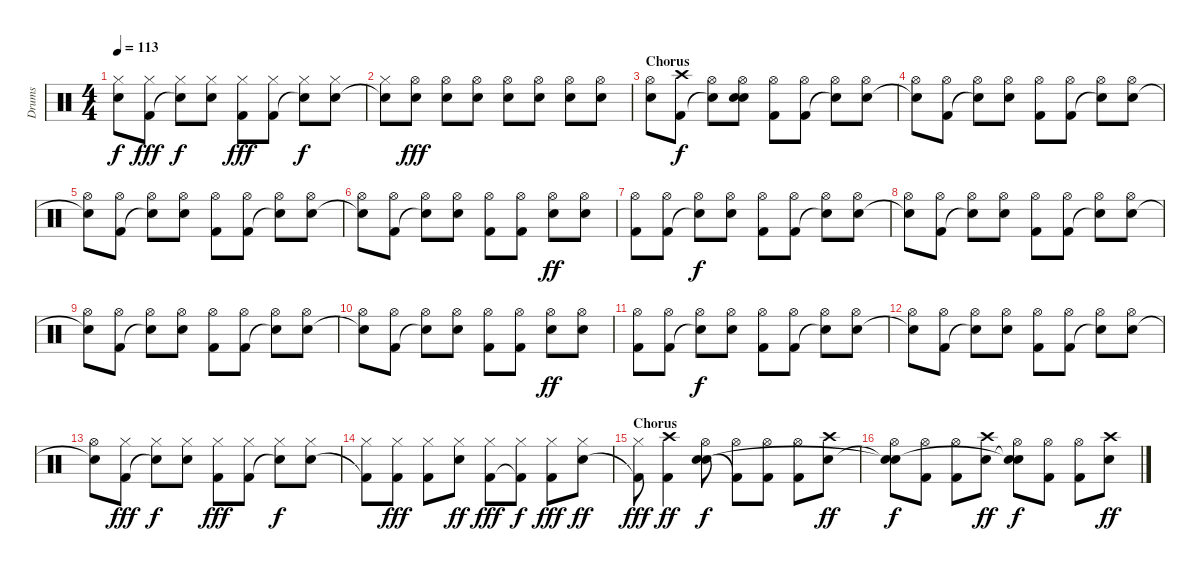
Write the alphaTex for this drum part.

\track ("Drums" "Drums") {instrument percussion}
\staff {score}
\articulation defaults
\ts (4 4)
\tempo 113
\clef neutral
\ks c
("Snare (hit)"{t} "Hi-Hat (closed)").8{dy f} ("Kick (hit) 2" "Hi-Hat (closed)").8{dy fff} ("Snare (hit)"{t} "Hi-Hat (closed)").8{dy f} ("Snare (hit) 2" "Hi-Hat (closed)").8 ("Kick (hit) 2" "Hi-Hat (closed)").8{dy fff} ("Kick (hit) 2" "Hi-Hat (closed)").8 ("Snare (hit)"{t} "Hi-Hat (closed)").8{dy f} ("Snare (hit) 2" "Hi-Hat (closed)").8 |
("Snare (hit) 2"{t} "Hi-Hat (closed)").8 ("Snare (hit) 2" "Hi-Hat (open)").8{dy fff} ("Snare (hit) 2" "Hi-Hat (open)").8 ("Snare (hit) 2" "Hi-Hat (open)").8 ("Snare (hit) 2" "Hi-Hat (open)").8 ("Snare (hit) 2" "Hi-Hat (open)").8 ("Snare (hit) 2" "Hi-Hat (open)").8 ("Snare (hit) 2" "Hi-Hat (open)").8 |
\section ("" "Chorus")
("Snare (hit) 2" "Hi-Hat (open)").8 ("Kick (hit) 2" "Crash high (hit)").8{dy f} ("Snare (hit)"{t} "Hi-Hat (open)").8 ("Snare (hit) 2" "Hi-Hat (open)" "Snare (hit)").8 ("Kick (hit) 2" "Hi-Hat (open)").8 ("Kick (hit) 2" "Hi-Hat (open)").8 ("Snare (hit)"{t} "Hi-Hat (open)").8 ("Snare (hit) 2" "Hi-Hat (open)").8 |
("Snare (hit)"{t} "Hi-Hat (open)").8 ("Kick (hit) 2" "Hi-Hat (open)").8 ("Snare (hit)"{t} "Hi-Hat (open)").8 ("Snare (hit) 2" "Hi-Hat (open)").8 ("Kick (hit) 2" "Hi-Hat (open)").8 ("Kick (hit) 2" "Hi-Hat (open)").8 ("Snare (hit)"{t} "Hi-Hat (open)").8 ("Snare (hit) 2" "Hi-Hat (open)").8 |
("Snare (hit)"{t} "Hi-Hat (open)").8 ("Kick (hit) 2" "Hi-Hat (open)").8 ("Snare (hit)"{t} "Hi-Hat (open)").8 ("Snare (hit) 2" "Hi-Hat (open)").8 ("Kick (hit) 2" "Hi-Hat (open)").8 ("Kick (hit) 2" "Hi-Hat (open)").8 ("Snare (hit)"{t} "Hi-Hat (open)").8 ("Snare (hit) 2" "Hi-Hat (open)").8 |
("Snare (hit)"{t} "Hi-Hat (open)").8 ("Kick (hit) 2" "Hi-Hat (open)").8 ("Snare (hit)"{t} "Hi-Hat (open)").8 ("Snare (hit) 2" "Hi-Hat (open)").8 ("Kick (hit) 2" "Hi-Hat (open)").8 ("Kick (hit) 2" "Hi-Hat (open)").8 ("Snare (hit) 2" "Hi-Hat (open)").8{dy ff} ("Snare (hit) 2" "Hi-Hat (open)").8 |
("Kick (hit) 2" "Hi-Hat (open)").8 ("Kick (hit) 2" "Hi-Hat (open)").8 ("Snare (hit)"{t} "Hi-Hat (open)").8{dy f} ("Snare (hit) 2" "Hi-Hat (open)").8 ("Kick (hit) 2" "Hi-Hat (open)").8 ("Kick (hit) 2" "Hi-Hat (open)").8 ("Snare (hit)"{t} "Hi-Hat (open)").8 ("Snare (hit) 2" "Hi-Hat (open)").8 |
("Snare (hit)"{t} "Hi-Hat (open)").8 ("Kick (hit) 2" "Hi-Hat (open)").8 ("Snare (hit)"{t} "Hi-Hat (open)").8 ("Snare (hit) 2" "Hi-Hat (open)").8 ("Kick (hit) 2" "Hi-Hat (open)").8 ("Kick (hit) 2" "Hi-Hat (open)").8 ("Snare (hit)"{t} "Hi-Hat (open)").8 ("Snare (hit) 2" "Hi-Hat (open)").8 |
("Snare (hit)"{t} "Hi-Hat (open)").8 ("Kick (hit) 2" "Hi-Hat (open)").8 ("Snare (hit)"{t} "Hi-Hat (open)").8 ("Snare (hit) 2" "Hi-Hat (open)").8 ("Kick (hit) 2" "Hi-Hat (open)").8 ("Kick (hit) 2" "Hi-Hat (open)").8 ("Snare (hit)"{t} "Hi-Hat (open)").8 ("Snare (hit) 2" "Hi-Hat (open)").8 |
("Snare (hit)"{t} "Hi-Hat (open)").8 ("Kick (hit) 2" "Hi-Hat (open)").8 ("Snare (hit)"{t} "Hi-Hat (open)").8 ("Snare (hit) 2" "Hi-Hat (open)").8 ("Kick (hit) 2" "Hi-Hat (open)").8 ("Kick (hit) 2" "Hi-Hat (open)").8 ("Snare (hit) 2" "Hi-Hat (open)").8{dy ff} ("Snare (hit) 2" "Hi-Hat (open)").8 |
("Kick (hit) 2" "Hi-Hat (open)").8 ("Kick (hit) 2" "Hi-Hat (open)").8 ("Snare (hit)"{t} "Hi-Hat (open)").8{dy f} ("Snare (hit) 2" "Hi-Hat (open)").8 ("Kick (hit) 2" "Hi-Hat (open)").8 ("Kick (hit) 2" "Hi-Hat (open)").8 ("Snare (hit)"{t} "Hi-Hat (open)").8 ("Snare (hit) 2" "Hi-Hat (open)").8 |
("Snare (hit)"{t} "Hi-Hat (open)").8 ("Kick (hit) 2" "Hi-Hat (open)").8 ("Snare (hit)"{t} "Hi-Hat (open)").8 ("Snare (hit) 2" "Hi-Hat (open)").8 ("Kick (hit) 2" "Hi-Hat (open)").8 ("Kick (hit) 2" "Hi-Hat (open)").8 ("Snare (hit)"{t} "Hi-Hat (open)").8 ("Snare (hit) 2" "Hi-Hat (open)").8 |
("Snare (hit)"{t} "Hi-Hat (open)").8 ("Kick (hit) 2" "Hi-Hat (closed)").8{dy fff} ("Snare (hit)"{t} "Hi-Hat (closed)").8{dy f} ("Snare (hit) 2" "Hi-Hat (closed)").8 ("Kick (hit) 2" "Hi-Hat (closed)").8{dy fff} ("Kick (hit) 2" "Hi-Hat (closed)").8 ("Snare (hit)"{t} "Hi-Hat (closed)").8{dy f} ("Snare (hit) 2" "Hi-Hat (closed)").8 |
("Kick (hit) 2"{t} "Hi-Hat (closed)").8 ("Kick (hit) 2" "Hi-Hat (closed)").8{dy fff} ("Kick (hit) 2" "Hi-Hat (closed)").8 ("Snare (hit) 2" "Hi-Hat (closed)").8{dy ff} ("Kick (hit) 2" "Hi-Hat (closed)").8{dy fff} ("Kick (hit) 2"{t} "Hi-Hat (closed)").8{dy f} ("Kick (hit) 2" "Hi-Hat (closed)").8{dy fff} ("Snare (hit) 2" "Hi-Hat (closed)").8{dy ff} |
\section ("" "Chorus")
("Kick (hit) 2"{t} "Hi-Hat (closed)").8{dy fff} ("Kick (hit) 2" "Crash high (hit)").4{dy ff} ("Snare (hit) 2" "Hi-Hat (open)" "Snare (hit)").8{dy f} ("Kick (hit) 2"{t} "Hi-Hat (open)").8 ("Kick (hit) 2" "Hi-Hat (open)").8 ("Kick (hit) 2" "Hi-Hat (open)").8 ("Snare (hit) 2" "Crash high (hit)").8{dy ff} |
("Snare (hit)"{t} "Hi-Hat (open)" "Snare (hit)"{t}).8{dy f} ("Kick (hit) 2" "Hi-Hat (open)").8 ("Kick (hit) 2" "Hi-Hat (open)").8 ("Snare (hit) 2" "Crash high (hit)").8{dy ff} ("Snare (hit)"{t} "Hi-Hat (open)" "Snare (hit)"{t}).8{dy f} ("Kick (hit) 2" "Hi-Hat (open)").8 ("Kick (hit) 2" "Hi-Hat (open)").8 ("Snare (hit) 2" "Crash high (hit)").8{dy ff}
